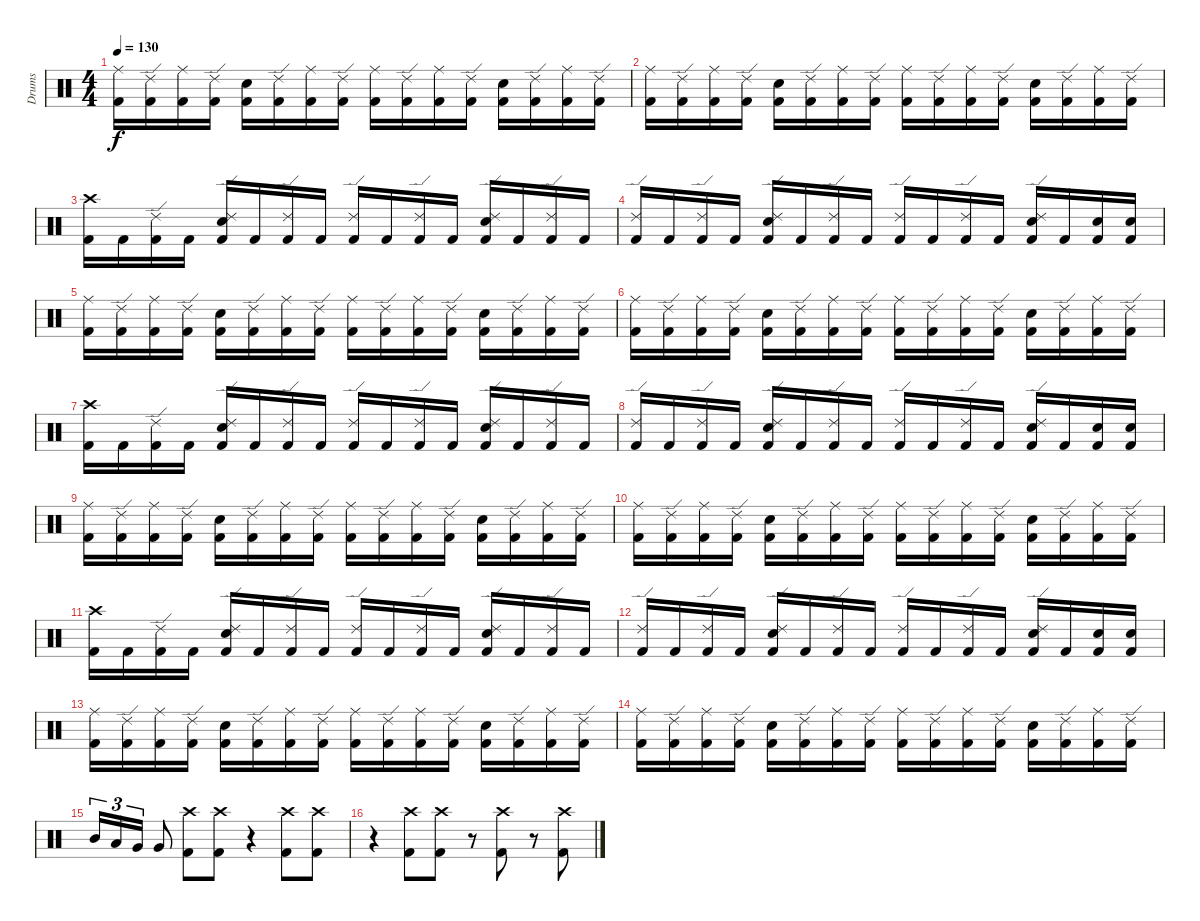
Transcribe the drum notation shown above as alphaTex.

\track ("Drums" "Drums") {instrument percussion}
\staff {score}
\articulation defaults
\ts (4 4)
\tempo 130
\clef neutral
\ks c
("Ride (middle)" "Kick (hit) 2").16{dy f} ("Ride (edge) 2" "Kick (hit) 2").16 ("Ride (middle)" "Kick (hit) 2").16 ("Ride (edge) 2" "Kick (hit) 2").16 ("Electric Snare (hit)" "Kick (hit) 2").16 ("Ride (edge) 2" "Kick (hit) 2").16 ("Ride (middle)" "Kick (hit) 2").16 ("Ride (edge) 2" "Kick (hit) 2").16 ("Ride (middle)" "Kick (hit) 2").16 ("Ride (edge) 2" "Kick (hit) 2").16 ("Ride (middle)" "Kick (hit) 2").16 ("Ride (edge) 2" "Kick (hit) 2").16 ("Electric Snare (hit)" "Kick (hit) 2").16 ("Ride (edge) 2" "Kick (hit) 2").16 ("Ride (middle)" "Kick (hit) 2").16 ("Ride (edge) 2" "Kick (hit) 2").16 |
("Ride (middle)" "Kick (hit) 2").16 ("Ride (edge) 2" "Kick (hit) 2").16 ("Ride (middle)" "Kick (hit) 2").16 ("Ride (edge) 2" "Kick (hit) 2").16 ("Electric Snare (hit)" "Kick (hit) 2").16 ("Ride (edge) 2" "Kick (hit) 2").16 ("Ride (middle)" "Kick (hit) 2").16 ("Ride (edge) 2" "Kick (hit) 2").16 ("Ride (middle)" "Kick (hit) 2").16 ("Ride (edge) 2" "Kick (hit) 2").16 ("Ride (middle)" "Kick (hit) 2").16 ("Ride (edge) 2" "Kick (hit) 2").16 ("Electric Snare (hit)" "Kick (hit) 2").16 ("Ride (edge) 2" "Kick (hit) 2").16 ("Ride (middle)" "Kick (hit) 2").16 ("Ride (edge) 2" "Kick (hit) 2").16 |
("Crash high (hit)" "Kick (hit) 2").16 "Kick (hit) 2".16 ("Ride (edge) 2" "Kick (hit) 2").16 "Kick (hit) 2".16 ("Ride (edge) 2" "Electric Snare (hit)" "Kick (hit) 2").16 "Kick (hit) 2".16 ("Ride (edge) 2" "Kick (hit) 2").16 "Kick (hit) 2".16 ("Ride (edge) 2" "Kick (hit) 2").16 "Kick (hit) 2".16 ("Ride (edge) 2" "Kick (hit) 2").16 "Kick (hit) 2".16 ("Ride (edge) 2" "Electric Snare (hit)" "Kick (hit) 2").16 "Kick (hit) 2".16 ("Ride (edge) 2" "Kick (hit) 2").16 "Kick (hit) 2".16 |
("Ride (edge) 2" "Kick (hit) 2").16 "Kick (hit) 2".16 ("Ride (edge) 2" "Kick (hit) 2").16 "Kick (hit) 2".16 ("Ride (edge) 2" "Electric Snare (hit)" "Kick (hit) 2").16 "Kick (hit) 2".16 ("Ride (edge) 2" "Kick (hit) 2").16 "Kick (hit) 2".16 ("Ride (edge) 2" "Kick (hit) 2").16 "Kick (hit) 2".16 ("Ride (edge) 2" "Kick (hit) 2").16 "Kick (hit) 2".16 ("Ride (edge) 2" "Electric Snare (hit)" "Kick (hit) 2").16 "Kick (hit) 2".16 ("Electric Snare (hit)" "Kick (hit) 2").16 ("Electric Snare (hit)" "Kick (hit) 2").16 |
("Ride (middle)" "Kick (hit) 2").16 ("Ride (edge) 2" "Kick (hit) 2").16 ("Ride (middle)" "Kick (hit) 2").16 ("Ride (edge) 2" "Kick (hit) 2").16 ("Electric Snare (hit)" "Kick (hit) 2").16 ("Ride (edge) 2" "Kick (hit) 2").16 ("Ride (middle)" "Kick (hit) 2").16 ("Ride (edge) 2" "Kick (hit) 2").16 ("Ride (middle)" "Kick (hit) 2").16 ("Ride (edge) 2" "Kick (hit) 2").16 ("Ride (middle)" "Kick (hit) 2").16 ("Ride (edge) 2" "Kick (hit) 2").16 ("Electric Snare (hit)" "Kick (hit) 2").16 ("Ride (edge) 2" "Kick (hit) 2").16 ("Ride (middle)" "Kick (hit) 2").16 ("Ride (edge) 2" "Kick (hit) 2").16 |
("Ride (middle)" "Kick (hit) 2").16 ("Ride (edge) 2" "Kick (hit) 2").16 ("Ride (middle)" "Kick (hit) 2").16 ("Ride (edge) 2" "Kick (hit) 2").16 ("Electric Snare (hit)" "Kick (hit) 2").16 ("Ride (edge) 2" "Kick (hit) 2").16 ("Ride (middle)" "Kick (hit) 2").16 ("Ride (edge) 2" "Kick (hit) 2").16 ("Ride (middle)" "Kick (hit) 2").16 ("Ride (edge) 2" "Kick (hit) 2").16 ("Ride (middle)" "Kick (hit) 2").16 ("Ride (edge) 2" "Kick (hit) 2").16 ("Electric Snare (hit)" "Kick (hit) 2").16 ("Ride (edge) 2" "Kick (hit) 2").16 ("Ride (middle)" "Kick (hit) 2").16 ("Ride (edge) 2" "Kick (hit) 2").16 |
("Crash high (hit)" "Kick (hit) 2").16 "Kick (hit) 2".16 ("Ride (edge) 2" "Kick (hit) 2").16 "Kick (hit) 2".16 ("Ride (edge) 2" "Electric Snare (hit)" "Kick (hit) 2").16 "Kick (hit) 2".16 ("Ride (edge) 2" "Kick (hit) 2").16 "Kick (hit) 2".16 ("Ride (edge) 2" "Kick (hit) 2").16 "Kick (hit) 2".16 ("Ride (edge) 2" "Kick (hit) 2").16 "Kick (hit) 2".16 ("Ride (edge) 2" "Electric Snare (hit)" "Kick (hit) 2").16 "Kick (hit) 2".16 ("Ride (edge) 2" "Kick (hit) 2").16 "Kick (hit) 2".16 |
("Ride (edge) 2" "Kick (hit) 2").16 "Kick (hit) 2".16 ("Ride (edge) 2" "Kick (hit) 2").16 "Kick (hit) 2".16 ("Ride (edge) 2" "Electric Snare (hit)" "Kick (hit) 2").16 "Kick (hit) 2".16 ("Ride (edge) 2" "Kick (hit) 2").16 "Kick (hit) 2".16 ("Ride (edge) 2" "Kick (hit) 2").16 "Kick (hit) 2".16 ("Ride (edge) 2" "Kick (hit) 2").16 "Kick (hit) 2".16 ("Ride (edge) 2" "Electric Snare (hit)" "Kick (hit) 2").16 "Kick (hit) 2".16 ("Electric Snare (hit)" "Kick (hit) 2").16 ("Electric Snare (hit)" "Kick (hit) 2").16 |
("Ride (middle)" "Kick (hit) 2").16 ("Ride (edge) 2" "Kick (hit) 2").16 ("Ride (middle)" "Kick (hit) 2").16 ("Ride (edge) 2" "Kick (hit) 2").16 ("Electric Snare (hit)" "Kick (hit) 2").16 ("Ride (edge) 2" "Kick (hit) 2").16 ("Ride (middle)" "Kick (hit) 2").16 ("Ride (edge) 2" "Kick (hit) 2").16 ("Ride (middle)" "Kick (hit) 2").16 ("Ride (edge) 2" "Kick (hit) 2").16 ("Ride (middle)" "Kick (hit) 2").16 ("Ride (edge) 2" "Kick (hit) 2").16 ("Electric Snare (hit)" "Kick (hit) 2").16 ("Ride (edge) 2" "Kick (hit) 2").16 ("Ride (middle)" "Kick (hit) 2").16 ("Ride (edge) 2" "Kick (hit) 2").16 |
("Ride (middle)" "Kick (hit) 2").16 ("Ride (edge) 2" "Kick (hit) 2").16 ("Ride (middle)" "Kick (hit) 2").16 ("Ride (edge) 2" "Kick (hit) 2").16 ("Electric Snare (hit)" "Kick (hit) 2").16 ("Ride (edge) 2" "Kick (hit) 2").16 ("Ride (middle)" "Kick (hit) 2").16 ("Ride (edge) 2" "Kick (hit) 2").16 ("Ride (middle)" "Kick (hit) 2").16 ("Ride (edge) 2" "Kick (hit) 2").16 ("Ride (middle)" "Kick (hit) 2").16 ("Ride (edge) 2" "Kick (hit) 2").16 ("Electric Snare (hit)" "Kick (hit) 2").16 ("Ride (edge) 2" "Kick (hit) 2").16 ("Ride (middle)" "Kick (hit) 2").16 ("Ride (edge) 2" "Kick (hit) 2").16 |
("Crash high (hit)" "Kick (hit) 2").16 "Kick (hit) 2".16 ("Ride (edge) 2" "Kick (hit) 2").16 "Kick (hit) 2".16 ("Ride (edge) 2" "Electric Snare (hit)" "Kick (hit) 2").16 "Kick (hit) 2".16 ("Ride (edge) 2" "Kick (hit) 2").16 "Kick (hit) 2".16 ("Ride (edge) 2" "Kick (hit) 2").16 "Kick (hit) 2".16 ("Ride (edge) 2" "Kick (hit) 2").16 "Kick (hit) 2".16 ("Ride (edge) 2" "Electric Snare (hit)" "Kick (hit) 2").16 "Kick (hit) 2".16 ("Ride (edge) 2" "Kick (hit) 2").16 "Kick (hit) 2".16 |
("Ride (edge) 2" "Kick (hit) 2").16 "Kick (hit) 2".16 ("Ride (edge) 2" "Kick (hit) 2").16 "Kick (hit) 2".16 ("Ride (edge) 2" "Electric Snare (hit)" "Kick (hit) 2").16 "Kick (hit) 2".16 ("Ride (edge) 2" "Kick (hit) 2").16 "Kick (hit) 2".16 ("Ride (edge) 2" "Kick (hit) 2").16 "Kick (hit) 2".16 ("Ride (edge) 2" "Kick (hit) 2").16 "Kick (hit) 2".16 ("Ride (edge) 2" "Electric Snare (hit)" "Kick (hit) 2").16 "Kick (hit) 2".16 ("Electric Snare (hit)" "Kick (hit) 2").16 ("Electric Snare (hit)" "Kick (hit) 2").16 |
("Ride (middle)" "Kick (hit) 2").16 ("Ride (edge) 2" "Kick (hit) 2").16 ("Ride (middle)" "Kick (hit) 2").16 ("Ride (edge) 2" "Kick (hit) 2").16 ("Electric Snare (hit)" "Kick (hit) 2").16 ("Ride (edge) 2" "Kick (hit) 2").16 ("Ride (middle)" "Kick (hit) 2").16 ("Ride (edge) 2" "Kick (hit) 2").16 ("Ride (middle)" "Kick (hit) 2").16 ("Ride (edge) 2" "Kick (hit) 2").16 ("Ride (middle)" "Kick (hit) 2").16 ("Ride (edge) 2" "Kick (hit) 2").16 ("Electric Snare (hit)" "Kick (hit) 2").16 ("Ride (edge) 2" "Kick (hit) 2").16 ("Ride (middle)" "Kick (hit) 2").16 ("Ride (edge) 2" "Kick (hit) 2").16 |
("Ride (middle)" "Kick (hit) 2").16 ("Ride (edge) 2" "Kick (hit) 2").16 ("Ride (middle)" "Kick (hit) 2").16 ("Ride (edge) 2" "Kick (hit) 2").16 ("Electric Snare (hit)" "Kick (hit) 2").16 ("Ride (edge) 2" "Kick (hit) 2").16 ("Ride (middle)" "Kick (hit) 2").16 ("Ride (edge) 2" "Kick (hit) 2").16 ("Ride (middle)" "Kick (hit) 2").16 ("Ride (edge) 2" "Kick (hit) 2").16 ("Ride (middle)" "Kick (hit) 2").16 ("Ride (edge) 2" "Kick (hit) 2").16 ("Electric Snare (hit)" "Kick (hit) 2").16 ("Ride (edge) 2" "Kick (hit) 2").16 ("Ride (middle)" "Kick (hit) 2").16 ("Ride (edge) 2" "Kick (hit) 2").16 |
"Mid Tom (hit)".16{tu (3 2)} "Low Tom (hit)".16{tu (3 2)} "Very Low Tom (hit)".16{tu (3 2)} "Very Low Tom (hit)".8 ("Crash high (hit)" "Kick (hit) 2").8 ("Crash high (hit)" "Kick (hit) 2").8 r.4 ("Crash high (hit)" "Kick (hit) 2").8 ("Crash high (hit)" "Kick (hit) 2").8 |
r.4 ("Crash high (hit)" "Kick (hit) 2").8 ("Crash high (hit)" "Kick (hit) 2").8 r.8 ("Crash high (hit)" "Kick (hit) 2").8 r.8 ("Crash high (hit)" "Kick (hit) 2").8
